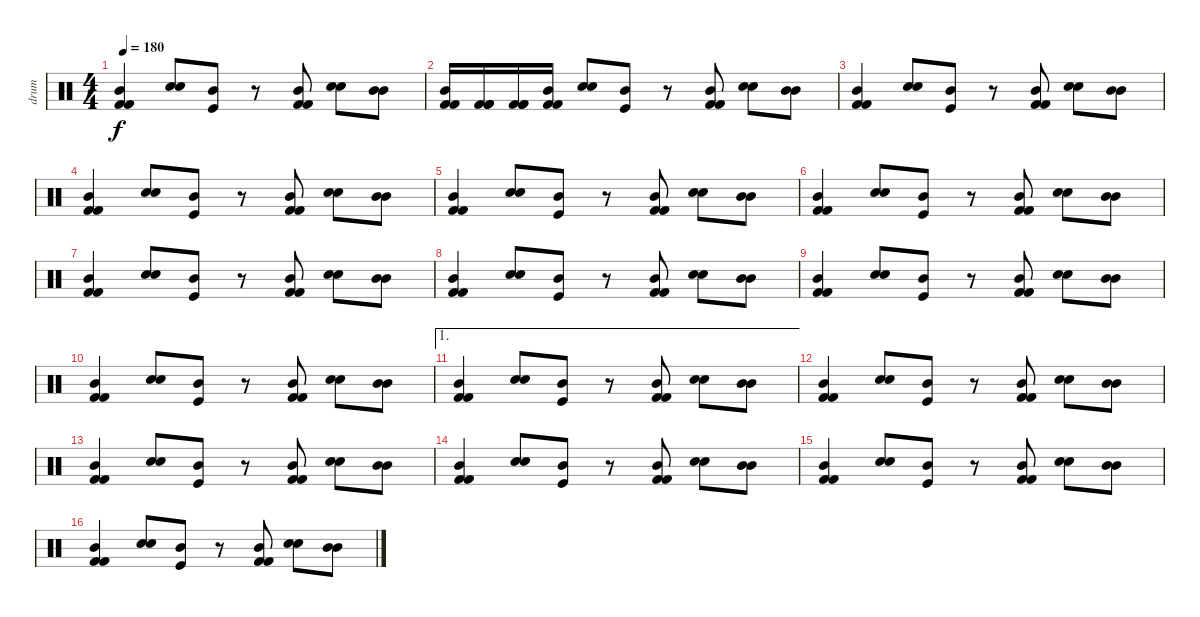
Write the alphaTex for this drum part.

\track ("drum" "drum") {instrument percussion}
\staff {score}
\articulation defaults
\ts (4 4)
\tempo 180
\clef neutral
\ks c
("Kick (hit) 2" "Mid Tom (hit)" "Kick (hit) 2").4{dy f} ("Electric Snare (hit)" "Electric Snare (hit)").8 ("Kick (hit)" "Mid Tom (hit)").8 r.8 ("Mid Tom (hit)" "Kick (hit) 2" "Kick (hit) 2").8 ("Electric Snare (hit)" "Electric Snare (hit)").8 ("Mid Tom (hit)" "Mid Tom (hit)").8 |
("Kick (hit) 2" "Mid Tom (hit)" "Kick (hit) 2").16 ("Kick (hit) 2" "Kick (hit) 2" "Kick (hit) 2").16 ("Kick (hit) 2" "Kick (hit) 2" "Kick (hit) 2").16 ("Kick (hit) 2" "Mid Tom (hit)" "Kick (hit) 2").16 ("Electric Snare (hit)" "Electric Snare (hit)").8 ("Kick (hit)" "Mid Tom (hit)").8 r.8 ("Mid Tom (hit)" "Kick (hit) 2" "Kick (hit) 2").8 ("Electric Snare (hit)" "Electric Snare (hit)").8 ("Mid Tom (hit)" "Mid Tom (hit)").8 |
("Kick (hit) 2" "Mid Tom (hit)" "Kick (hit) 2").4 ("Electric Snare (hit)" "Electric Snare (hit)").8 ("Kick (hit)" "Mid Tom (hit)").8 r.8 ("Mid Tom (hit)" "Kick (hit) 2" "Kick (hit) 2").8 ("Electric Snare (hit)" "Electric Snare (hit)").8 ("Mid Tom (hit)" "Mid Tom (hit)").8 |
("Kick (hit) 2" "Mid Tom (hit)" "Kick (hit) 2").4 ("Electric Snare (hit)" "Electric Snare (hit)").8 ("Kick (hit)" "Mid Tom (hit)").8 r.8 ("Mid Tom (hit)" "Kick (hit) 2" "Kick (hit) 2").8 ("Electric Snare (hit)" "Electric Snare (hit)").8 ("Mid Tom (hit)" "Mid Tom (hit)").8 |
("Kick (hit) 2" "Mid Tom (hit)" "Kick (hit) 2").4 ("Electric Snare (hit)" "Electric Snare (hit)").8 ("Kick (hit)" "Mid Tom (hit)").8 r.8 ("Mid Tom (hit)" "Kick (hit) 2" "Kick (hit) 2").8 ("Electric Snare (hit)" "Electric Snare (hit)").8 ("Mid Tom (hit)" "Mid Tom (hit)").8 |
("Kick (hit) 2" "Mid Tom (hit)" "Kick (hit) 2").4 ("Electric Snare (hit)" "Electric Snare (hit)").8 ("Kick (hit)" "Mid Tom (hit)").8 r.8 ("Mid Tom (hit)" "Kick (hit) 2" "Kick (hit) 2").8 ("Electric Snare (hit)" "Electric Snare (hit)").8 ("Mid Tom (hit)" "Mid Tom (hit)").8 |
("Kick (hit) 2" "Mid Tom (hit)" "Kick (hit) 2").4 ("Electric Snare (hit)" "Electric Snare (hit)").8 ("Kick (hit)" "Mid Tom (hit)").8 r.8 ("Mid Tom (hit)" "Kick (hit) 2" "Kick (hit) 2").8 ("Electric Snare (hit)" "Electric Snare (hit)").8 ("Mid Tom (hit)" "Mid Tom (hit)").8 |
("Kick (hit) 2" "Mid Tom (hit)" "Kick (hit) 2").4 ("Electric Snare (hit)" "Electric Snare (hit)").8 ("Kick (hit)" "Mid Tom (hit)").8 r.8 ("Mid Tom (hit)" "Kick (hit) 2" "Kick (hit) 2").8 ("Electric Snare (hit)" "Electric Snare (hit)").8 ("Mid Tom (hit)" "Mid Tom (hit)").8 |
("Kick (hit) 2" "Mid Tom (hit)" "Kick (hit) 2").4 ("Electric Snare (hit)" "Electric Snare (hit)").8 ("Kick (hit)" "Mid Tom (hit)").8 r.8 ("Mid Tom (hit)" "Kick (hit) 2" "Kick (hit) 2").8 ("Electric Snare (hit)" "Electric Snare (hit)").8 ("Mid Tom (hit)" "Mid Tom (hit)").8 |
("Kick (hit) 2" "Mid Tom (hit)" "Kick (hit) 2").4 ("Electric Snare (hit)" "Electric Snare (hit)").8 ("Kick (hit)" "Mid Tom (hit)").8 r.8 ("Mid Tom (hit)" "Kick (hit) 2" "Kick (hit) 2").8 ("Electric Snare (hit)" "Electric Snare (hit)").8 ("Mid Tom (hit)" "Mid Tom (hit)").8 |
\ae 1
("Kick (hit) 2" "Mid Tom (hit)" "Kick (hit) 2").4 ("Electric Snare (hit)" "Electric Snare (hit)").8 ("Kick (hit)" "Mid Tom (hit)").8 r.8 ("Mid Tom (hit)" "Kick (hit) 2" "Kick (hit) 2").8 ("Electric Snare (hit)" "Electric Snare (hit)").8 ("Mid Tom (hit)" "Mid Tom (hit)").8 |
("Kick (hit) 2" "Mid Tom (hit)" "Kick (hit) 2").4 ("Electric Snare (hit)" "Electric Snare (hit)").8 ("Kick (hit)" "Mid Tom (hit)").8 r.8 ("Mid Tom (hit)" "Kick (hit) 2" "Kick (hit) 2").8 ("Electric Snare (hit)" "Electric Snare (hit)").8 ("Mid Tom (hit)" "Mid Tom (hit)").8 |
("Kick (hit) 2" "Mid Tom (hit)" "Kick (hit) 2").4 ("Electric Snare (hit)" "Electric Snare (hit)").8 ("Kick (hit)" "Mid Tom (hit)").8 r.8 ("Mid Tom (hit)" "Kick (hit) 2" "Kick (hit) 2").8 ("Electric Snare (hit)" "Electric Snare (hit)").8 ("Mid Tom (hit)" "Mid Tom (hit)").8 |
("Kick (hit) 2" "Mid Tom (hit)" "Kick (hit) 2").4 ("Electric Snare (hit)" "Electric Snare (hit)").8 ("Kick (hit)" "Mid Tom (hit)").8 r.8 ("Mid Tom (hit)" "Kick (hit) 2" "Kick (hit) 2").8 ("Electric Snare (hit)" "Electric Snare (hit)").8 ("Mid Tom (hit)" "Mid Tom (hit)").8 |
("Kick (hit) 2" "Mid Tom (hit)" "Kick (hit) 2").4 ("Electric Snare (hit)" "Electric Snare (hit)").8 ("Kick (hit)" "Mid Tom (hit)").8 r.8 ("Mid Tom (hit)" "Kick (hit) 2" "Kick (hit) 2").8 ("Electric Snare (hit)" "Electric Snare (hit)").8 ("Mid Tom (hit)" "Mid Tom (hit)").8 |
("Kick (hit) 2" "Mid Tom (hit)" "Kick (hit) 2").4 ("Electric Snare (hit)" "Electric Snare (hit)").8 ("Kick (hit)" "Mid Tom (hit)").8 r.8 ("Mid Tom (hit)" "Kick (hit) 2" "Kick (hit) 2").8 ("Electric Snare (hit)" "Electric Snare (hit)").8 ("Mid Tom (hit)" "Mid Tom (hit)").8
